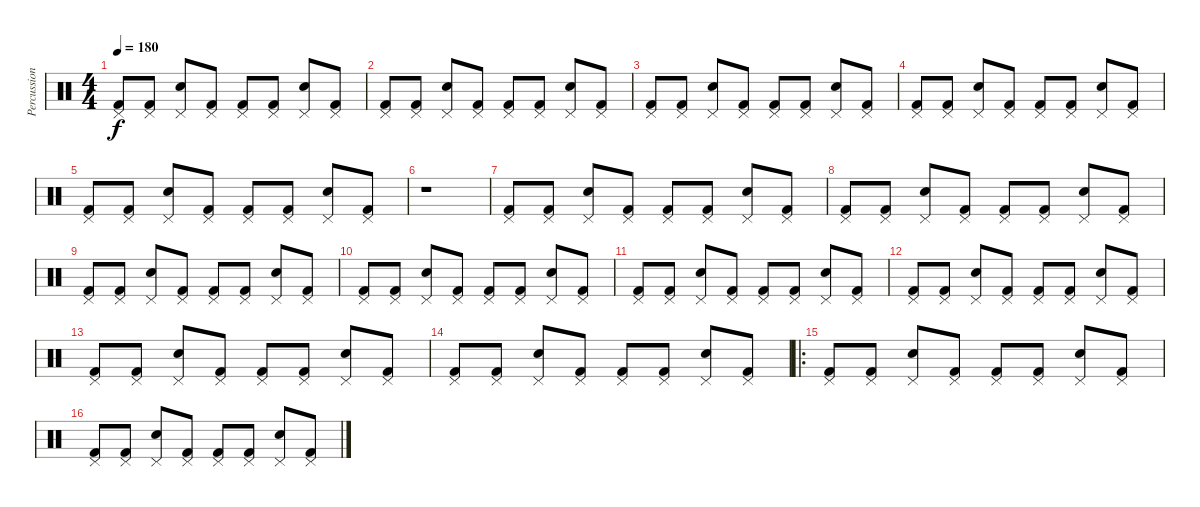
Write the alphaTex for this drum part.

\track ("Percussion" "Percussion") {instrument percussion}
\staff {score}
\articulation defaults
\ts (4 4)
\tempo 180
\clef neutral
\ks c
("Pedal Hi-Hat (hit)" "Kick (hit) 2").8{dy f} ("Pedal Hi-Hat (hit)" "Kick (hit) 2").8 ("Pedal Hi-Hat (hit)" "Snare (hit) 2").8 ("Pedal Hi-Hat (hit)" "Kick (hit) 2").8 ("Pedal Hi-Hat (hit)" "Kick (hit) 2").8 ("Pedal Hi-Hat (hit)" "Kick (hit) 2").8 ("Pedal Hi-Hat (hit)" "Snare (hit) 2").8 ("Pedal Hi-Hat (hit)" "Kick (hit) 2").8 |
("Pedal Hi-Hat (hit)" "Kick (hit) 2").8 ("Pedal Hi-Hat (hit)" "Kick (hit) 2").8 ("Pedal Hi-Hat (hit)" "Snare (hit) 2").8 ("Pedal Hi-Hat (hit)" "Kick (hit) 2").8 ("Pedal Hi-Hat (hit)" "Kick (hit) 2").8 ("Pedal Hi-Hat (hit)" "Kick (hit) 2").8 ("Pedal Hi-Hat (hit)" "Snare (hit) 2").8 ("Pedal Hi-Hat (hit)" "Kick (hit) 2").8 |
("Pedal Hi-Hat (hit)" "Kick (hit) 2").8 ("Pedal Hi-Hat (hit)" "Kick (hit) 2").8 ("Pedal Hi-Hat (hit)" "Snare (hit) 2").8 ("Pedal Hi-Hat (hit)" "Kick (hit) 2").8 ("Pedal Hi-Hat (hit)" "Kick (hit) 2").8 ("Pedal Hi-Hat (hit)" "Kick (hit) 2").8 ("Pedal Hi-Hat (hit)" "Snare (hit) 2").8 ("Pedal Hi-Hat (hit)" "Kick (hit) 2").8 |
("Pedal Hi-Hat (hit)" "Kick (hit) 2").8 ("Pedal Hi-Hat (hit)" "Kick (hit) 2").8 ("Pedal Hi-Hat (hit)" "Snare (hit) 2").8 ("Pedal Hi-Hat (hit)" "Kick (hit) 2").8 ("Pedal Hi-Hat (hit)" "Kick (hit) 2").8 ("Pedal Hi-Hat (hit)" "Kick (hit) 2").8 ("Pedal Hi-Hat (hit)" "Snare (hit) 2").8 ("Pedal Hi-Hat (hit)" "Kick (hit) 2").8 |
("Pedal Hi-Hat (hit)" "Kick (hit) 2").8 ("Pedal Hi-Hat (hit)" "Kick (hit) 2").8 ("Pedal Hi-Hat (hit)" "Snare (hit) 2").8 ("Pedal Hi-Hat (hit)" "Kick (hit) 2").8 ("Pedal Hi-Hat (hit)" "Kick (hit) 2").8 ("Pedal Hi-Hat (hit)" "Kick (hit) 2").8 ("Pedal Hi-Hat (hit)" "Snare (hit) 2").8 ("Pedal Hi-Hat (hit)" "Kick (hit) 2").8 |
r.1 |
("Pedal Hi-Hat (hit)" "Kick (hit) 2").8 ("Pedal Hi-Hat (hit)" "Kick (hit) 2").8 ("Pedal Hi-Hat (hit)" "Snare (hit) 2").8 ("Pedal Hi-Hat (hit)" "Kick (hit) 2").8 ("Pedal Hi-Hat (hit)" "Kick (hit) 2").8 ("Pedal Hi-Hat (hit)" "Kick (hit) 2").8 ("Pedal Hi-Hat (hit)" "Snare (hit) 2").8 ("Pedal Hi-Hat (hit)" "Kick (hit) 2").8 |
("Pedal Hi-Hat (hit)" "Kick (hit) 2").8 ("Pedal Hi-Hat (hit)" "Kick (hit) 2").8 ("Pedal Hi-Hat (hit)" "Snare (hit) 2").8 ("Pedal Hi-Hat (hit)" "Kick (hit) 2").8 ("Pedal Hi-Hat (hit)" "Kick (hit) 2").8 ("Pedal Hi-Hat (hit)" "Kick (hit) 2").8 ("Pedal Hi-Hat (hit)" "Snare (hit) 2").8 ("Pedal Hi-Hat (hit)" "Kick (hit) 2").8 |
("Pedal Hi-Hat (hit)" "Kick (hit) 2").8 ("Pedal Hi-Hat (hit)" "Kick (hit) 2").8 ("Pedal Hi-Hat (hit)" "Snare (hit) 2").8 ("Pedal Hi-Hat (hit)" "Kick (hit) 2").8 ("Pedal Hi-Hat (hit)" "Kick (hit) 2").8 ("Pedal Hi-Hat (hit)" "Kick (hit) 2").8 ("Pedal Hi-Hat (hit)" "Snare (hit) 2").8 ("Pedal Hi-Hat (hit)" "Kick (hit) 2").8 |
("Pedal Hi-Hat (hit)" "Kick (hit) 2").8 ("Pedal Hi-Hat (hit)" "Kick (hit) 2").8 ("Pedal Hi-Hat (hit)" "Snare (hit) 2").8 ("Pedal Hi-Hat (hit)" "Kick (hit) 2").8 ("Pedal Hi-Hat (hit)" "Kick (hit) 2").8 ("Pedal Hi-Hat (hit)" "Kick (hit) 2").8 ("Pedal Hi-Hat (hit)" "Snare (hit) 2").8 ("Pedal Hi-Hat (hit)" "Kick (hit) 2").8 |
("Pedal Hi-Hat (hit)" "Kick (hit) 2").8 ("Pedal Hi-Hat (hit)" "Kick (hit) 2").8 ("Pedal Hi-Hat (hit)" "Snare (hit) 2").8 ("Pedal Hi-Hat (hit)" "Kick (hit) 2").8 ("Pedal Hi-Hat (hit)" "Kick (hit) 2").8 ("Pedal Hi-Hat (hit)" "Kick (hit) 2").8 ("Pedal Hi-Hat (hit)" "Snare (hit) 2").8 ("Pedal Hi-Hat (hit)" "Kick (hit) 2").8 |
("Pedal Hi-Hat (hit)" "Kick (hit) 2").8 ("Pedal Hi-Hat (hit)" "Kick (hit) 2").8 ("Pedal Hi-Hat (hit)" "Snare (hit) 2").8 ("Pedal Hi-Hat (hit)" "Kick (hit) 2").8 ("Pedal Hi-Hat (hit)" "Kick (hit) 2").8 ("Pedal Hi-Hat (hit)" "Kick (hit) 2").8 ("Pedal Hi-Hat (hit)" "Snare (hit) 2").8 ("Pedal Hi-Hat (hit)" "Kick (hit) 2").8 |
("Pedal Hi-Hat (hit)" "Kick (hit) 2").8 ("Pedal Hi-Hat (hit)" "Kick (hit) 2").8 ("Pedal Hi-Hat (hit)" "Snare (hit) 2").8 ("Pedal Hi-Hat (hit)" "Kick (hit) 2").8 ("Pedal Hi-Hat (hit)" "Kick (hit) 2").8 ("Pedal Hi-Hat (hit)" "Kick (hit) 2").8 ("Pedal Hi-Hat (hit)" "Snare (hit) 2").8 ("Pedal Hi-Hat (hit)" "Kick (hit) 2").8 |
("Pedal Hi-Hat (hit)" "Kick (hit) 2").8 ("Pedal Hi-Hat (hit)" "Kick (hit) 2").8 ("Pedal Hi-Hat (hit)" "Snare (hit) 2").8 ("Pedal Hi-Hat (hit)" "Kick (hit) 2").8 ("Pedal Hi-Hat (hit)" "Kick (hit) 2").8 ("Pedal Hi-Hat (hit)" "Kick (hit) 2").8 ("Pedal Hi-Hat (hit)" "Snare (hit) 2").8 ("Pedal Hi-Hat (hit)" "Kick (hit) 2").8 |
\ro
("Pedal Hi-Hat (hit)" "Kick (hit) 2").8 ("Pedal Hi-Hat (hit)" "Kick (hit) 2").8 ("Pedal Hi-Hat (hit)" "Snare (hit) 2").8 ("Pedal Hi-Hat (hit)" "Kick (hit) 2").8 ("Pedal Hi-Hat (hit)" "Kick (hit) 2").8 ("Pedal Hi-Hat (hit)" "Kick (hit) 2").8 ("Pedal Hi-Hat (hit)" "Snare (hit) 2").8 ("Pedal Hi-Hat (hit)" "Kick (hit) 2").8 |
("Pedal Hi-Hat (hit)" "Kick (hit) 2").8 ("Pedal Hi-Hat (hit)" "Kick (hit) 2").8 ("Pedal Hi-Hat (hit)" "Snare (hit) 2").8 ("Pedal Hi-Hat (hit)" "Kick (hit) 2").8 ("Pedal Hi-Hat (hit)" "Kick (hit) 2").8 ("Pedal Hi-Hat (hit)" "Kick (hit) 2").8 ("Pedal Hi-Hat (hit)" "Snare (hit) 2").8 ("Pedal Hi-Hat (hit)" "Kick (hit) 2").8
